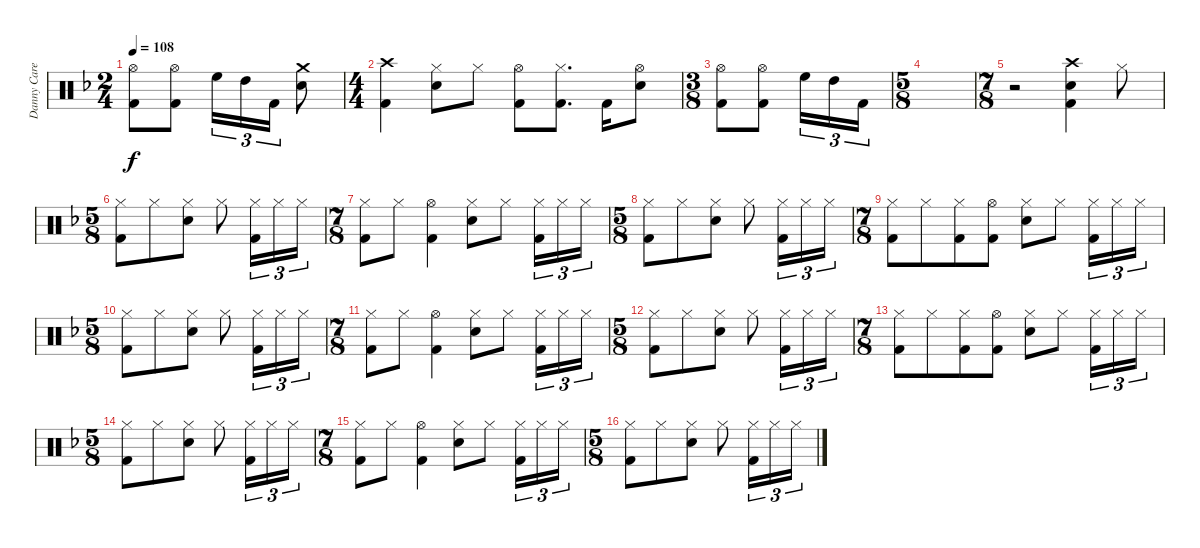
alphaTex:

\track ("Danny Carey" "Danny Care") {instrument percussion}
\staff {score}
\articulation defaults
\ts (2 4)
\tempo 108
\clef neutral
\ks dminor
("Hi-Hat (open)" "Kick (hit) 2").8{dy f} ("Hi-Hat (open)" "Kick (hit) 2").8 "High Floor Tom (hit)".16{tu (3 2)} "High Tom (hit)".16{tu (3 2)} "Kick (hit) 2".16{tu (3 2)} ("Crash medium (hit)" "Electric Snare (hit)").8 |
\ts (4 4)
("Crash high (hit)" "Kick (hit) 2").4 ("Hi-Hat (closed)" "Electric Snare (hit)").8 "Hi-Hat (closed)".8 ("Hi-Hat (open)" "Kick (hit) 2").8 ("Hi-Hat (closed)" "Kick (hit) 2").8{d} "Kick (hit) 2".16 ("Hi-Hat (open)" "Electric Snare (hit)").8 |
\ts (3 8)
("Hi-Hat (open)" "Kick (hit) 2").8 ("Hi-Hat (open)" "Kick (hit) 2").8 "High Floor Tom (hit)".16{tu (3 2)} "High Tom (hit)".16{tu (3 2)} "Kick (hit) 2".16{tu (3 2)} |
\ts (5 8)
|
\ts (7 8)
r.2 ("Crash high (hit)" "Electric Snare (hit)" "Kick (hit) 2").4 "Hi-Hat (closed)".8 |
\ts (5 8)
("Hi-Hat (closed)" "Kick (hit) 2").8 "Hi-Hat (closed)".8 ("Hi-Hat (closed)" "Electric Snare (hit)").8 "Hi-Hat (closed)".8 ("Hi-Hat (closed)" "Kick (hit) 2").16{tu (3 2)} "Hi-Hat (closed)".16{tu (3 2)} "Hi-Hat (closed)".16{tu (3 2)} |
\ts (7 8)
("Hi-Hat (closed)" "Kick (hit) 2").8 "Hi-Hat (closed)".8 ("Hi-Hat (open)" "Kick (hit) 2").4 ("Hi-Hat (closed)" "Electric Snare (hit)").8 "Hi-Hat (closed)".8 ("Hi-Hat (closed)" "Kick (hit) 2").16{tu (3 2)} "Hi-Hat (closed)".16{tu (3 2)} "Hi-Hat (closed)".16{tu (3 2)} |
\ts (5 8)
("Hi-Hat (closed)" "Kick (hit) 2").8 "Hi-Hat (closed)".8 ("Hi-Hat (closed)" "Electric Snare (hit)").8 "Hi-Hat (closed)".8 ("Hi-Hat (closed)" "Kick (hit) 2").16{tu (3 2)} "Hi-Hat (closed)".16{tu (3 2)} "Hi-Hat (closed)".16{tu (3 2)} |
\ts (7 8)
("Hi-Hat (closed)" "Kick (hit) 2").8 "Hi-Hat (closed)".8 ("Hi-Hat (closed)" "Kick (hit) 2").8 ("Hi-Hat (open)" "Kick (hit) 2").8 ("Hi-Hat (closed)" "Electric Snare (hit)").8 "Hi-Hat (closed)".8 ("Hi-Hat (closed)" "Kick (hit) 2").16{tu (3 2)} "Hi-Hat (closed)".16{tu (3 2)} "Hi-Hat (closed)".16{tu (3 2)} |
\ts (5 8)
("Hi-Hat (closed)" "Kick (hit) 2").8 "Hi-Hat (closed)".8 ("Hi-Hat (closed)" "Electric Snare (hit)").8 "Hi-Hat (closed)".8 ("Hi-Hat (closed)" "Kick (hit) 2").16{tu (3 2)} "Hi-Hat (closed)".16{tu (3 2)} "Hi-Hat (closed)".16{tu (3 2)} |
\ts (7 8)
("Hi-Hat (closed)" "Kick (hit) 2").8 "Hi-Hat (closed)".8 ("Hi-Hat (open)" "Kick (hit) 2").4 ("Hi-Hat (closed)" "Electric Snare (hit)").8 "Hi-Hat (closed)".8 ("Hi-Hat (closed)" "Kick (hit) 2").16{tu (3 2)} "Hi-Hat (closed)".16{tu (3 2)} "Hi-Hat (closed)".16{tu (3 2)} |
\ts (5 8)
("Hi-Hat (closed)" "Kick (hit) 2").8 "Hi-Hat (closed)".8 ("Hi-Hat (closed)" "Electric Snare (hit)").8 "Hi-Hat (closed)".8 ("Hi-Hat (closed)" "Kick (hit) 2").16{tu (3 2)} "Hi-Hat (closed)".16{tu (3 2)} "Hi-Hat (closed)".16{tu (3 2)} |
\ts (7 8)
("Hi-Hat (closed)" "Kick (hit) 2").8 "Hi-Hat (closed)".8 ("Hi-Hat (closed)" "Kick (hit) 2").8 ("Hi-Hat (open)" "Kick (hit) 2").8 ("Hi-Hat (closed)" "Electric Snare (hit)").8 "Hi-Hat (closed)".8 ("Hi-Hat (closed)" "Kick (hit) 2").16{tu (3 2)} "Hi-Hat (closed)".16{tu (3 2)} "Hi-Hat (closed)".16{tu (3 2)} |
\ts (5 8)
("Hi-Hat (closed)" "Kick (hit) 2").8 "Hi-Hat (closed)".8 ("Hi-Hat (closed)" "Electric Snare (hit)").8 "Hi-Hat (closed)".8 ("Hi-Hat (closed)" "Kick (hit) 2").16{tu (3 2)} "Hi-Hat (closed)".16{tu (3 2)} "Hi-Hat (closed)".16{tu (3 2)} |
\ts (7 8)
("Hi-Hat (closed)" "Kick (hit) 2").8 "Hi-Hat (closed)".8 ("Hi-Hat (open)" "Kick (hit) 2").4 ("Hi-Hat (closed)" "Electric Snare (hit)").8 "Hi-Hat (closed)".8 ("Hi-Hat (closed)" "Kick (hit) 2").16{tu (3 2)} "Hi-Hat (closed)".16{tu (3 2)} "Hi-Hat (closed)".16{tu (3 2)} |
\ts (5 8)
("Hi-Hat (closed)" "Kick (hit) 2").8 "Hi-Hat (closed)".8 ("Hi-Hat (closed)" "Electric Snare (hit)").8 "Hi-Hat (closed)".8 ("Hi-Hat (closed)" "Kick (hit) 2").16{tu (3 2)} "Hi-Hat (closed)".16{tu (3 2)} "Hi-Hat (closed)".16{tu (3 2)}
